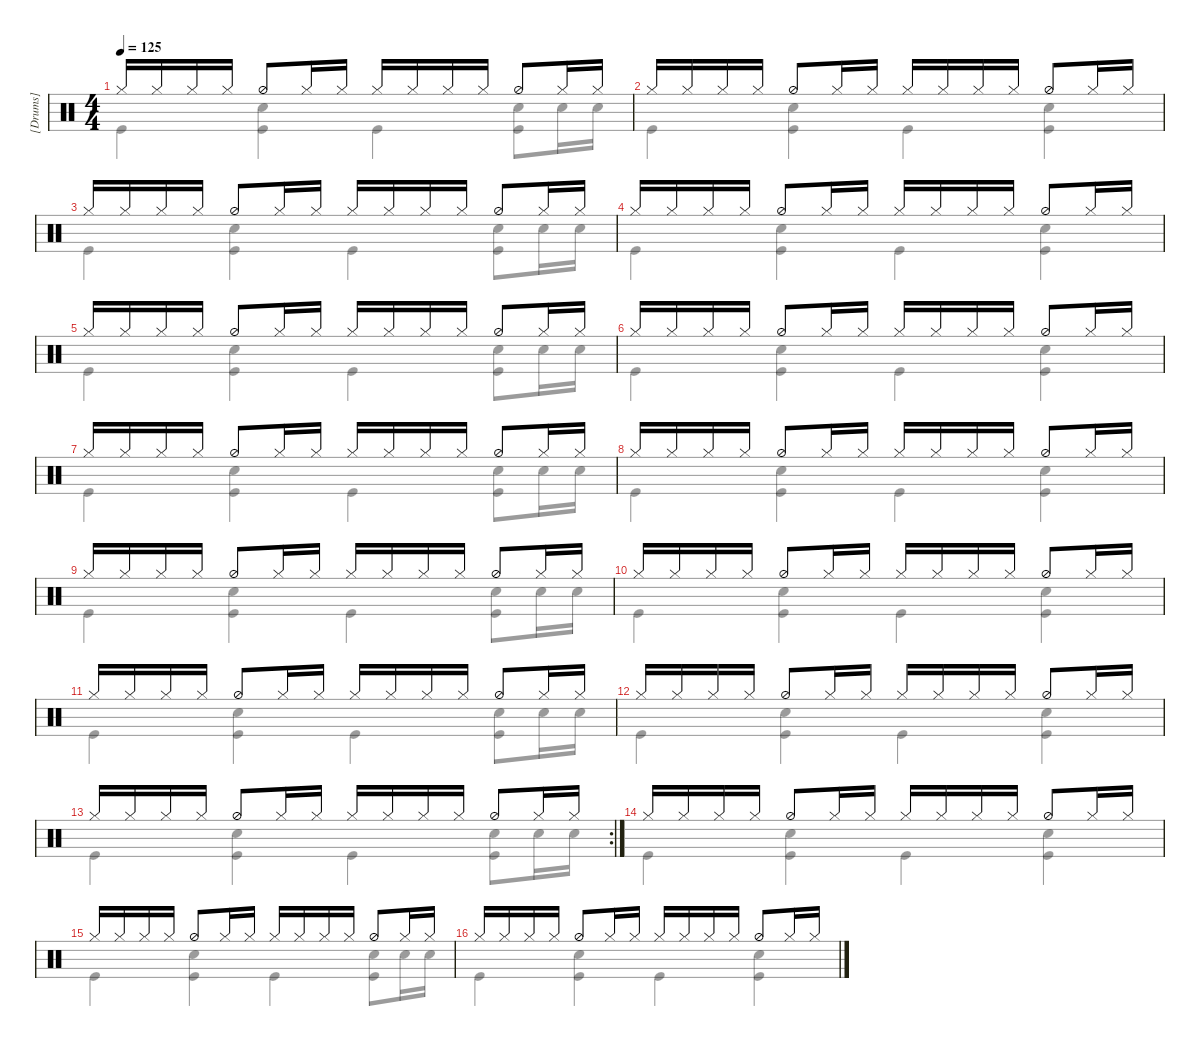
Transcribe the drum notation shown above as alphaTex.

\hideDynamics
\bracketExtendMode groupsimilarinstruments
\firstSystemTrackNameMode fullname
\otherSystemsTrackNameMode fullname
\otherSystemsTrackNameOrientation horizontal
\track ("[Drums]" "Drums") {instrument percussion}
\staff {score}
\articulation defaults
\voice
\ts (4 4)
\tempo 125
\clef neutral
\ks c "Hi-Hat (closed)".16{dy ff} "Hi-Hat (closed)".16 "Hi-Hat (closed)".16 "Hi-Hat (closed)".16 "Hi-Hat (half)".8 "Hi-Hat (closed)".16 "Hi-Hat (closed)".16 "Hi-Hat (closed)".16 "Hi-Hat (closed)".16 "Hi-Hat (closed)".16 "Hi-Hat (closed)".16 "Hi-Hat (half)".8 "Hi-Hat (closed)".16 "Hi-Hat (closed)".16
|
"Hi-Hat (closed)".16 "Hi-Hat (closed)".16 "Hi-Hat (closed)".16 "Hi-Hat (closed)".16 "Hi-Hat (half)".8 "Hi-Hat (closed)".16 "Hi-Hat (closed)".16 "Hi-Hat (closed)".16 "Hi-Hat (closed)".16 "Hi-Hat (closed)".16 "Hi-Hat (closed)".16 "Hi-Hat (half)".8 "Hi-Hat (closed)".16 "Hi-Hat (closed)".16 |
"Hi-Hat (closed)".16 "Hi-Hat (closed)".16 "Hi-Hat (closed)".16 "Hi-Hat (closed)".16 "Hi-Hat (half)".8 "Hi-Hat (closed)".16 "Hi-Hat (closed)".16 "Hi-Hat (closed)".16 "Hi-Hat (closed)".16 "Hi-Hat (closed)".16 "Hi-Hat (closed)".16 "Hi-Hat (half)".8 "Hi-Hat (closed)".16 "Hi-Hat (closed)".16 |
"Hi-Hat (closed)".16 "Hi-Hat (closed)".16 "Hi-Hat (closed)".16 "Hi-Hat (closed)".16 "Hi-Hat (half)".8 "Hi-Hat (closed)".16 "Hi-Hat (closed)".16 "Hi-Hat (closed)".16 "Hi-Hat (closed)".16 "Hi-Hat (closed)".16 "Hi-Hat (closed)".16 "Hi-Hat (half)".8 "Hi-Hat (closed)".16 "Hi-Hat (closed)".16 |
"Hi-Hat (closed)".16 "Hi-Hat (closed)".16 "Hi-Hat (closed)".16 "Hi-Hat (closed)".16 "Hi-Hat (half)".8 "Hi-Hat (closed)".16 "Hi-Hat (closed)".16 "Hi-Hat (closed)".16 "Hi-Hat (closed)".16 "Hi-Hat (closed)".16 "Hi-Hat (closed)".16 "Hi-Hat (half)".8 "Hi-Hat (closed)".16 "Hi-Hat (closed)".16 |
\scale
0.37931 "Hi-Hat (closed)".16 "Hi-Hat (closed)".16 "Hi-Hat (closed)".16 "Hi-Hat (closed)".16 "Hi-Hat (half)".8 "Hi-Hat (closed)".16 "Hi-Hat (closed)".16 "Hi-Hat (closed)".16 "Hi-Hat (closed)".16 "Hi-Hat (closed)".16 "Hi-Hat (closed)".16 "Hi-Hat (half)".8 "Hi-Hat (closed)".16 "Hi-Hat (closed)".16 |
\scale
0.321429 "Hi-Hat (closed)".16 "Hi-Hat (closed)".16 "Hi-Hat (closed)".16 "Hi-Hat (closed)".16 "Hi-Hat (half)".8 "Hi-Hat (closed)".16 "Hi-Hat (closed)".16 "Hi-Hat (closed)".16 "Hi-Hat (closed)".16 "Hi-Hat (closed)".16 "Hi-Hat (closed)".16 "Hi-Hat (half)".8 "Hi-Hat (closed)".16 "Hi-Hat (closed)".16 |
\scale
0.321429 "Hi-Hat (closed)".16 "Hi-Hat (closed)".16 "Hi-Hat (closed)".16 "Hi-Hat (closed)".16 "Hi-Hat (half)".8 "Hi-Hat (closed)".16 "Hi-Hat (closed)".16 "Hi-Hat (closed)".16 "Hi-Hat (closed)".16 "Hi-Hat (closed)".16 "Hi-Hat (closed)".16 "Hi-Hat (half)".8 "Hi-Hat (closed)".16 "Hi-Hat (closed)".16 |
\scale
0.357143 "Hi-Hat (closed)".16 "Hi-Hat (closed)".16 "Hi-Hat (closed)".16 "Hi-Hat (closed)".16 "Hi-Hat (half)".8 "Hi-Hat (closed)".16 "Hi-Hat (closed)".16 "Hi-Hat (closed)".16 "Hi-Hat (closed)".16 "Hi-Hat (closed)".16 "Hi-Hat (closed)".16 "Hi-Hat (half)".8 "Hi-Hat (closed)".16 "Hi-Hat (closed)".16 |
"Hi-Hat (closed)".16 "Hi-Hat (closed)".16 "Hi-Hat (closed)".16 "Hi-Hat (closed)".16 "Hi-Hat (half)".8 "Hi-Hat (closed)".16 "Hi-Hat (closed)".16 "Hi-Hat (closed)".16 "Hi-Hat (closed)".16 "Hi-Hat (closed)".16 "Hi-Hat (closed)".16 "Hi-Hat (half)".8 "Hi-Hat (closed)".16 "Hi-Hat (closed)".16 |
"Hi-Hat (closed)".16 "Hi-Hat (closed)".16 "Hi-Hat (closed)".16 "Hi-Hat (closed)".16 "Hi-Hat (half)".8 "Hi-Hat (closed)".16 "Hi-Hat (closed)".16 "Hi-Hat (closed)".16 "Hi-Hat (closed)".16 "Hi-Hat (closed)".16 "Hi-Hat (closed)".16 "Hi-Hat (half)".8 "Hi-Hat (closed)".16 "Hi-Hat (closed)".16 |
"Hi-Hat (closed)".16 "Hi-Hat (closed)".16 "Hi-Hat (closed)".16 "Hi-Hat (closed)".16 "Hi-Hat (half)".8 "Hi-Hat (closed)".16 "Hi-Hat (closed)".16 "Hi-Hat (closed)".16 "Hi-Hat (closed)".16 "Hi-Hat (closed)".16 "Hi-Hat (closed)".16 "Hi-Hat (half)".8 "Hi-Hat (closed)".16 "Hi-Hat (closed)".16 |
\rc 2 "Hi-Hat (closed)".16 "Hi-Hat (closed)".16 "Hi-Hat (closed)".16 "Hi-Hat (closed)".16 "Hi-Hat (half)".8 "Hi-Hat (closed)".16 "Hi-Hat (closed)".16 "Hi-Hat (closed)".16 "Hi-Hat (closed)".16 "Hi-Hat (closed)".16 "Hi-Hat (closed)".16 "Hi-Hat (half)".8 "Hi-Hat (closed)".16 "Hi-Hat (closed)".16
|
\scale
0.352941 "Hi-Hat (closed)".16 "Hi-Hat (closed)".16 "Hi-Hat (closed)".16 "Hi-Hat (closed)".16 "Hi-Hat (half)".8 "Hi-Hat (closed)".16 "Hi-Hat (closed)".16 "Hi-Hat (closed)".16 "Hi-Hat (closed)".16 "Hi-Hat (closed)".16 "Hi-Hat (closed)".16 "Hi-Hat (half)".8 "Hi-Hat (closed)".16 "Hi-Hat (closed)".16 |
"Hi-Hat (closed)".16 "Hi-Hat (closed)".16 "Hi-Hat (closed)".16 "Hi-Hat (closed)".16 "Hi-Hat (half)".8 "Hi-Hat (closed)".16 "Hi-Hat (closed)".16 "Hi-Hat (closed)".16 "Hi-Hat (closed)".16 "Hi-Hat (closed)".16 "Hi-Hat (closed)".16 "Hi-Hat (half)".8 "Hi-Hat (closed)".16 "Hi-Hat (closed)".16 |
"Hi-Hat (closed)".16 "Hi-Hat (closed)".16 "Hi-Hat (closed)".16 "Hi-Hat (closed)".16 "Hi-Hat (half)".8 "Hi-Hat (closed)".16 "Hi-Hat (closed)".16 "Hi-Hat (closed)".16 "Hi-Hat (closed)".16 "Hi-Hat (closed)".16 "Hi-Hat (closed)".16 "Hi-Hat (half)".8 "Hi-Hat (closed)".16 "Hi-Hat (closed)".16
\voice
\clef neutral
\ottava regular
\simile none
\ks c "Kick (hit)".4{dy f}
("Kick (hit)" "Snare (hit) 2").4 "Kick (hit)".4 ("Kick (hit)" "Snare (hit) 2").8 "Snare (hit) 2".16 "Snare (hit) 2".16 |
"Kick (hit)".4 ("Kick (hit)" "Snare (hit) 2").4 "Kick (hit)".4 ("Kick (hit)" "Snare (hit) 2").4 |
"Kick (hit)".4 ("Kick (hit)" "Snare (hit) 2").4 "Kick (hit)".4 ("Kick (hit)" "Snare (hit) 2").8 "Snare (hit) 2".16 "Snare (hit) 2".16 |
"Kick (hit)".4 ("Kick (hit)" "Snare (hit) 2").4 "Kick (hit)".4 ("Kick (hit)" "Snare (hit) 2").4 |
"Kick (hit)".4 ("Kick (hit)" "Snare (hit) 2").4 "Kick (hit)".4 ("Kick (hit)" "Snare (hit) 2").8 "Snare (hit) 2".16 "Snare (hit) 2".16 |
\scale
0.37931 "Kick (hit)".4 ("Kick (hit)" "Snare (hit) 2").4 "Kick (hit)".4 ("Kick (hit)" "Snare (hit) 2").4 |
\scale
0.321429 "Kick (hit)".4 ("Kick (hit)" "Snare (hit) 2").4 "Kick (hit)".4 ("Kick (hit)" "Snare (hit) 2").8 "Snare (hit) 2".16 "Snare (hit) 2".16 |
\scale
0.321429 "Kick (hit)".4 ("Kick (hit)" "Snare (hit) 2").4 "Kick (hit)".4 ("Kick (hit)" "Snare (hit) 2").4 |
\scale
0.357143 "Kick (hit)".4 ("Kick (hit)" "Snare (hit) 2").4 "Kick (hit)".4 ("Kick (hit)" "Snare (hit) 2").8 "Snare (hit) 2".16 "Snare (hit) 2".16 |
"Kick (hit)".4 ("Kick (hit)" "Snare (hit) 2").4 "Kick (hit)".4 ("Kick (hit)" "Snare (hit) 2").4 |
"Kick (hit)".4 ("Kick (hit)" "Snare (hit) 2").4 "Kick (hit)".4 ("Kick (hit)" "Snare (hit) 2").8 "Snare (hit) 2".16 "Snare (hit) 2".16 |
"Kick (hit)".4 ("Kick (hit)" "Snare (hit) 2").4 "Kick (hit)".4 ("Kick (hit)" "Snare (hit) 2").4 |
"Kick (hit)".4 ("Kick (hit)" "Snare (hit) 2").4 "Kick (hit)".4 ("Kick (hit)" "Snare (hit) 2").8 "Snare (hit) 2".16 "Snare (hit) 2".16 |
\scale
0.352941 "Kick (hit)".4 ("Kick (hit)" "Snare (hit) 2").4 "Kick (hit)".4 ("Kick (hit)" "Snare (hit) 2").4 |
"Kick (hit)".4 ("Kick (hit)" "Snare (hit) 2").4 "Kick (hit)".4 ("Kick (hit)" "Snare (hit) 2").8 "Snare (hit) 2".16 "Snare (hit) 2".16 |
"Kick (hit)".4 ("Kick (hit)" "Snare (hit) 2").4 "Kick (hit)".4 ("Kick (hit)" "Snare (hit) 2").4
